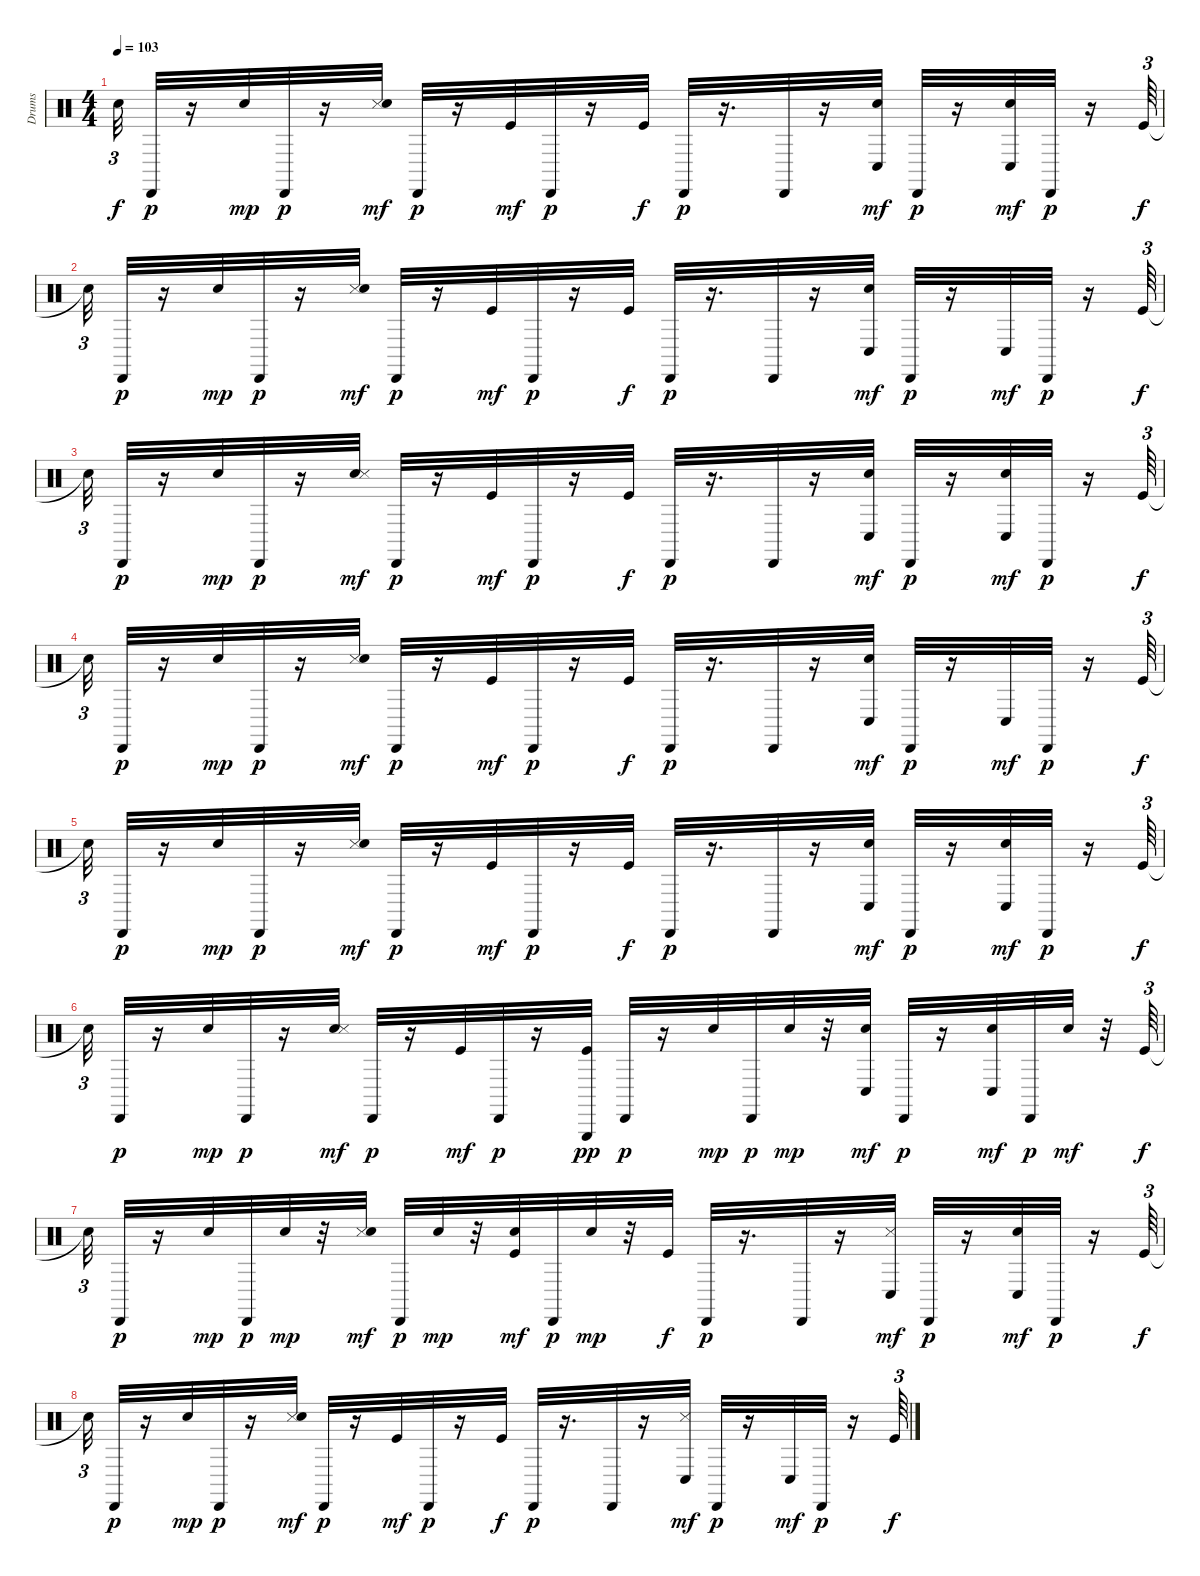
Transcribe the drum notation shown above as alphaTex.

\track ("Drums" "Drums") {instrument percussion}
\staff {score}
\articulation defaults
\ts (4 4)
\tempo 103
\clef neutral
\ks c "Snare (hit)"{t}.32{tu (3 2) dy f} "Cabasa (hit)".32{dy p}
r.16 "Snare (hit) 2".32{dy mp} "Cabasa (hit)".32{dy p} r.16 ("Snare (side stick) 3" "Snare (hit) 2").32{dy mf} "Cabasa (hit)".32{dy p} r.16 "Kick (hit)".32{dy mf} "Cabasa (hit)".32{dy p} r.16 "Kick (hit)".32{dy f} "Cabasa (hit)".32{dy p} r.16{d} "Cabasa (hit)".32 r.16 ("Hand Clap (hit)" "Conga low (hit)").32{dy mf} "Cabasa (hit)".32{dy p} r.16 ("Conga low (hit)" "Snare (hit) 2").32{dy mf} "Cabasa (hit)".32{dy p} r.16 "Kick (hit)".64{tu (3 2) dy f} |
"Snare (hit)"{t}.32{tu (3 2)} "Cabasa (hit)".32{dy p} r.16 "Snare (hit) 2".32{dy mp} "Cabasa (hit)".32{dy p} r.16 ("Snare (side stick) 3" "Snare (hit) 2").32{dy mf} "Cabasa (hit)".32{dy p} r.16 "Kick (hit)".32{dy mf} "Cabasa (hit)".32{dy p} r.16 "Kick (hit)".32{dy f} "Cabasa (hit)".32{dy p} r.16{d} "Cabasa (hit)".32 r.16 ("Hand Clap (hit)" "Conga low (hit)").32{dy mf} "Cabasa (hit)".32{dy p} r.16 "Conga low (hit)".32{dy mf} "Cabasa (hit)".32{dy p} r.16 "Kick (hit)".64{tu (3 2) dy f} |
"Snare (hit)"{t}.32{tu (3 2)} "Cabasa (hit)".32{dy p} r.16 "Snare (hit) 2".32{dy mp} "Cabasa (hit)".32{dy p} r.16 ("Snare (hit) 2" "Snare (side stick) 3").32{dy mf} "Cabasa (hit)".32{dy p} r.16 "Kick (hit)".32{dy mf} "Cabasa (hit)".32{dy p} r.16 "Kick (hit)".32{dy f} "Cabasa (hit)".32{dy p} r.16{d} "Cabasa (hit)".32 r.16 ("Hand Clap (hit)" "Conga low (hit)").32{dy mf} "Cabasa (hit)".32{dy p} r.16 ("Conga low (hit)" "Snare (hit) 2").32{dy mf} "Cabasa (hit)".32{dy p} r.16 "Kick (hit)".64{tu (3 2) dy f} |
"Snare (hit)"{t}.32{tu (3 2)} "Cabasa (hit)".32{dy p} r.16 "Snare (hit) 2".32{dy mp} "Cabasa (hit)".32{dy p} r.16 ("Snare (side stick) 3" "Snare (hit) 2").32{dy mf} "Cabasa (hit)".32{dy p} r.16 "Kick (hit)".32{dy mf} "Cabasa (hit)".32{dy p} r.16 "Kick (hit)".32{dy f} "Cabasa (hit)".32{dy p} r.16{d} "Cabasa (hit)".32 r.16 ("Hand Clap (hit)" "Conga low (hit)").32{dy mf} "Cabasa (hit)".32{dy p} r.16 "Conga low (hit)".32{dy mf} "Cabasa (hit)".32{dy p} r.16 "Kick (hit)".64{tu (3 2) dy f} |
"Snare (hit)"{t}.32{tu (3 2)} "Cabasa (hit)".32{dy p} r.16 "Snare (hit) 2".32{dy mp} "Cabasa (hit)".32{dy p} r.16 ("Snare (side stick) 3" "Snare (hit) 2").32{dy mf} "Cabasa (hit)".32{dy p} r.16 "Kick (hit)".32{dy mf} "Cabasa (hit)".32{dy p} r.16 "Kick (hit)".32{dy f} "Cabasa (hit)".32{dy p} r.16{d} "Cabasa (hit)".32 r.16 ("Conga low (hit)" "Hand Clap (hit)").32{dy mf} "Cabasa (hit)".32{dy p} r.16 ("Snare (hit) 2" "Conga low (hit)").32{dy mf} "Cabasa (hit)".32{dy p} r.16 "Kick (hit)".64{tu (3 2) dy f} |
"Snare (hit)"{t}.32{tu (3 2)} "Cabasa (hit)".32{dy p} r.16 "Snare (hit) 2".32{dy mp} "Cabasa (hit)".32{dy p} r.16 ("Snare (hit) 2" "Snare (side stick) 3").32{dy mf} "Cabasa (hit)".32{dy p} r.16 "Kick (hit)".32{dy mf} "Cabasa (hit)".32{dy p} r.16 ("Triangle (hit)" "Kick (hit)").32{dy pp} "Cabasa (hit)".32{dy p} r.16 "Snare (hit) 2".32{dy mp} "Cabasa (hit)".32{dy p} "Snare (hit) 2".32{dy mp} r.32 ("Hand Clap (hit)" "Conga low (hit)").32{dy mf} "Cabasa (hit)".32{dy p} r.16 ("Snare (hit) 2" "Conga low (hit)").32{dy mf} "Cabasa (hit)".32{dy p} "Snare (hit) 2".32{dy mf} r.32 "Kick (hit)".64{tu (3 2) dy f} |
"Snare (hit)"{t}.32{tu (3 2)} "Cabasa (hit)".32{dy p} r.16 "Snare (hit) 2".32{dy mp} "Cabasa (hit)".32{dy p} "Snare (hit) 2".32{dy mp} r.32 ("Snare (side stick) 3" "Snare (hit) 2").32{dy mf} "Cabasa (hit)".32{dy p} "Snare (hit) 2".32{dy mp} r.32 ("Snare (hit) 2" "Kick (hit)").32{dy mf} "Cabasa (hit)".32{dy p} "Snare (hit) 2".32{dy mp} r.32 "Kick (hit)".32{dy f} "Cabasa (hit)".32{dy p} r.16{d} "Cabasa (hit)".32 r.16 ("Snare (side stick) 3" "Conga low (hit)").32{dy mf} "Cabasa (hit)".32{dy p} r.16 ("Conga low (hit)" "Snare (hit) 2").32{dy mf} "Cabasa (hit)".32{dy p} r.16 "Kick (hit)".64{tu (3 2) dy f} |
"Snare (hit)"{t}.32{tu (3 2)} "Cabasa (hit)".32{dy p} r.16 "Snare (hit) 2".32{dy mp} "Cabasa (hit)".32{dy p} r.16 ("Snare (side stick) 3" "Snare (hit) 2").32{dy mf} "Cabasa (hit)".32{dy p} r.16 "Kick (hit)".32{dy mf} "Cabasa (hit)".32{dy p} r.16 "Kick (hit)".32{dy f} "Cabasa (hit)".32{dy p} r.16{d} "Cabasa (hit)".32 r.16 ("Conga low (hit)" "Snare (side stick) 3").32{dy mf} "Cabasa (hit)".32{dy p} r.16 "Conga low (hit)".32{dy mf} "Cabasa (hit)".32{dy p} r.16 "Kick (hit)".64{tu (3 2) dy f}
